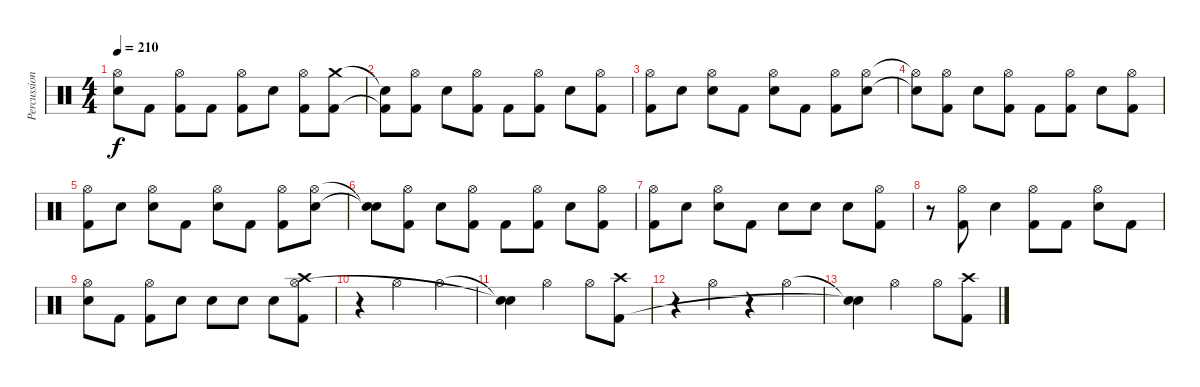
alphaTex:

\track ("Percussion" "Percussion") {instrument percussion}
\staff {score}
\articulation defaults
\ts (4 4)
\tempo 210
\clef neutral
\ks c
("Hi-Hat (open)" "Electric Snare (hit)").8{dy f} "Kick (hit) 2".8 ("Hi-Hat (open)" "Kick (hit) 2").8 "Kick (hit) 2".8 ("Hi-Hat (open)" "Kick (hit) 2").8 "Electric Snare (hit)".8 ("Hi-Hat (open)" "Kick (hit) 2").8 ("Crash medium (hit)" "Kick (hit) 2").8 |
("Snare (hit)"{t} "Kick (hit) 2"{t}).8 ("Hi-Hat (open)" "Kick (hit) 2").8 "Electric Snare (hit)".8 ("Hi-Hat (open)" "Kick (hit) 2").8 "Kick (hit) 2".8 ("Hi-Hat (open)" "Kick (hit) 2").8 "Electric Snare (hit)".8 ("Hi-Hat (open)" "Kick (hit) 2").8 |
("Hi-Hat (open)" "Kick (hit) 2").8 "Electric Snare (hit)".8 ("Hi-Hat (open)" "Electric Snare (hit)").8 "Kick (hit) 2".8 ("Hi-Hat (open)" "Electric Snare (hit)").8 "Kick (hit) 2".8 ("Hi-Hat (open)" "Kick (hit) 2").8 ("Hi-Hat (open)" "Electric Snare (hit)").8 |
("Hi-Hat (open)"{t} "Electric Snare (hit)"{t}).8 ("Hi-Hat (open)" "Kick (hit) 2").8 "Electric Snare (hit)".8 ("Hi-Hat (open)" "Kick (hit) 2").8 "Kick (hit) 2".8 ("Hi-Hat (open)" "Kick (hit) 2").8 "Electric Snare (hit)".8 ("Hi-Hat (open)" "Kick (hit) 2").8 |
("Hi-Hat (open)" "Kick (hit) 2").8 "Electric Snare (hit)".8 ("Hi-Hat (open)" "Electric Snare (hit)").8 "Kick (hit) 2".8 ("Hi-Hat (open)" "Electric Snare (hit)").8 "Kick (hit) 2".8 ("Hi-Hat (open)" "Kick (hit) 2").8 ("Hi-Hat (open)" "Electric Snare (hit)").8 |
("Snare (hit)"{t} "Snare (hit)"{t}).8 ("Hi-Hat (open)" "Kick (hit) 2").8 "Electric Snare (hit)".8 ("Hi-Hat (open)" "Kick (hit) 2").8 "Kick (hit) 2".8 ("Hi-Hat (open)" "Kick (hit) 2").8 "Electric Snare (hit)".8 ("Hi-Hat (open)" "Kick (hit) 2").8 |
("Hi-Hat (open)" "Kick (hit) 2").8 "Electric Snare (hit)".8 ("Hi-Hat (open)" "Electric Snare (hit)").8 "Kick (hit) 2".8 "Electric Snare (hit)".8 "Electric Snare (hit)".8 "Electric Snare (hit)".8 ("Hi-Hat (open)" "Kick (hit) 2").8 |
r.8 ("Hi-Hat (open)" "Kick (hit) 2").8 "Electric Snare (hit)".4 ("Hi-Hat (open)" "Kick (hit) 2").8 "Kick (hit) 2".8 ("Hi-Hat (open)" "Electric Snare (hit)").8 "Kick (hit) 2".8 |
("Hi-Hat (open)" "Electric Snare (hit)").8 "Kick (hit) 2".8 ("Hi-Hat (open)" "Kick (hit) 2").8 "Electric Snare (hit)".8 "Electric Snare (hit)".8 "Electric Snare (hit)".8 "Electric Snare (hit)".8 ("Crash high (hit)" "Hi-Hat (open)" "Kick (hit) 2").8 |
r.4 "Hi-Hat (open)".2 "Hi-Hat (open)".4 |
("Snare (hit)"{t} "Snare (hit)"{t}).4 "Hi-Hat (open)".2 "Hi-Hat (open)".8 ("Crash high (hit)" "Kick (hit) 2").8 |
r.4 "Hi-Hat (open)".4 r.4 "Hi-Hat (open)".4 |
("Snare (hit)"{t} "Snare (hit)"{t}).4 "Hi-Hat (open)".2 "Hi-Hat (open)".8 ("Crash high (hit)" "Kick (hit) 2").8
